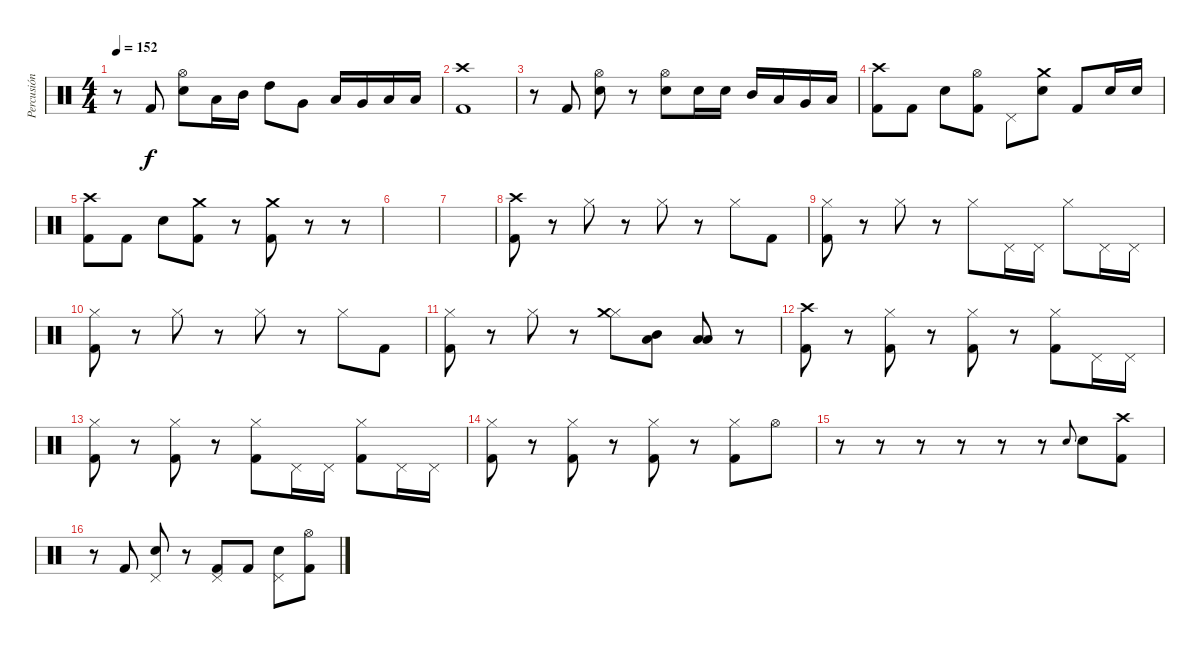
\track ("Percusión" "Percusión") {instrument percussion}
\staff {score}
\articulation defaults
\ts (4 4)
\tempo 152
\clef neutral
\ks c
r.8{dy f} "Kick (hit) 2".8 ("Snare (hit) 2" "Hi-Hat (open)").8 "Low Tom (hit)".16 "Mid Tom (hit)".16 "High Tom (hit)".8 "Very Low Tom (hit)".8 "Low Tom (hit)".16 "Very Low Tom (hit)".16 "Low Floor Tom (hit)".16 "Low Floor Tom (hit)".16 |
("Kick (hit) 2" "Crash high (hit)").1 |
r.8 "Kick (hit) 2".8 ("Snare (hit) 2" "Hi-Hat (open)").8 r.8 ("Snare (hit) 2" "Hi-Hat (open)").8 "Snare (hit) 2".16 "Snare (hit) 2".16 "Mid Tom (hit)".16 "Low Tom (hit)".16 "Very Low Tom (hit)".16 "Low Floor Tom (hit)".16 |
("Kick (hit) 2" "Crash high (hit)").8 "Kick (hit) 2".8 "Snare (hit) 2".8 ("Kick (hit) 2" "Hi-Hat (open)").8 "Pedal Hi-Hat (hit)".8 ("Snare (hit) 2" "Crash medium (hit)").8 "Kick (hit) 2".8 "Snare (hit) 2".16 "Snare (hit) 2".16 |
("Kick (hit) 2" "Crash high (hit)").8 "Kick (hit) 2".8 "Snare (hit) 2".8 ("Kick (hit) 2" "Crash medium (hit)").8 r.8 ("Kick (hit) 2" "Crash medium (hit)").8 r.8 r.8 |
|
|
("Kick (hit) 2" "Crash high (hit)").8 r.8 "Hi-Hat (closed)".8 r.8 "Hi-Hat (closed)".8 r.8 "Hi-Hat (closed)".8 "Kick (hit) 2".8 |
("Kick (hit) 2" "Hi-Hat (closed)").8 r.8 "Hi-Hat (closed)".8 r.8 "Hi-Hat (closed)".8 "Pedal Hi-Hat (hit)".16 "Pedal Hi-Hat (hit)".16 "Hi-Hat (closed)".8 "Pedal Hi-Hat (hit)".16 "Pedal Hi-Hat (hit)".16 |
("Kick (hit) 2" "Hi-Hat (closed)").8 r.8 "Hi-Hat (closed)".8 r.8 "Hi-Hat (closed)".8 r.8 "Hi-Hat (closed)".8 "Kick (hit) 2".8 |
("Kick (hit) 2" "Hi-Hat (closed)").8 r.8 "Hi-Hat (closed)".8 r.8 ("Hi-Hat (closed)" "Crash medium (hit)").8 ("Mid Tom (hit)" "Low Floor Tom (hit)").8 ("Low Tom (hit)" "Low Floor Tom (hit)").8 r.8 |
("Kick (hit) 2" "Crash high (hit)").8 r.8 ("Kick (hit) 2" "Hi-Hat (closed)").8 r.8 ("Kick (hit) 2" "Hi-Hat (closed)").8 r.8 ("Kick (hit) 2" "Hi-Hat (closed)").8 "Pedal Hi-Hat (hit)".16 "Pedal Hi-Hat (hit)".16 |
("Kick (hit) 2" "Hi-Hat (closed)").8 r.8 ("Kick (hit) 2" "Hi-Hat (closed)").8 r.8 ("Kick (hit) 2" "Hi-Hat (closed)").8 "Pedal Hi-Hat (hit)".16 "Pedal Hi-Hat (hit)".16 ("Kick (hit) 2" "Hi-Hat (closed)").8 "Pedal Hi-Hat (hit)".16 "Pedal Hi-Hat (hit)".16 |
("Kick (hit) 2" "Hi-Hat (closed)").8 r.8 ("Kick (hit) 2" "Hi-Hat (closed)").8 r.8 ("Kick (hit) 2" "Hi-Hat (closed)").8 r.8 ("Kick (hit) 2" "Hi-Hat (closed)").8 "Hi-Hat (open)".8 |
r.8 r.8 r.8 r.8 r.8 r.8 "Snare (hit) 2".8{gr onbeat} "Snare (hit) 2".8 ("Kick (hit) 2" "Crash high (hit)").8 |
r.8 "Kick (hit) 2".8 ("Snare (hit) 2" "Pedal Hi-Hat (hit)").8 r.8 ("Kick (hit) 2" "Pedal Hi-Hat (hit)").8 "Kick (hit) 2".8 ("Snare (hit) 2" "Pedal Hi-Hat (hit)").8 ("Kick (hit) 2" "Hi-Hat (open)").8
